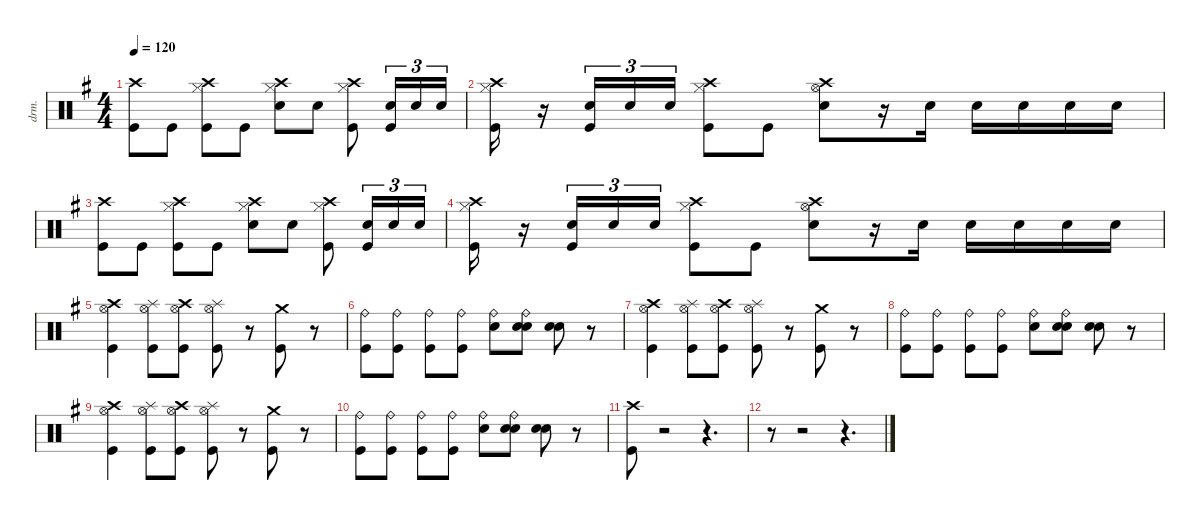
\defaultSystemsLayout 4
\hideDynamics
\bracketExtendMode nobrackets
\track ("Drums (Bill Ward)" "drm.") {instrument percussion}
\staff {score}
\articulation defaults
\ts (4 4)
\tempo 120
\clef neutral
\ks g
("Crash high (hit)"{acc forcenatural} "Kick (hit)"{acc forcenatural}).8{dy f} "Kick (hit)"{acc forcenatural}.8 ("Crash high (hit)"{acc forcenatural} "Hi-Hat (closed)"{acc forcenatural} "Kick (hit)"{acc forcenatural}).8 "Kick (hit)"{acc forcenatural}.8 ("Crash high (hit)"{acc forcenatural} "Hi-Hat (closed)"{acc forcenatural} "Snare (hit) 2"{acc forcenatural}).8 "Snare (hit) 2"{acc forcenatural}.8 ("Crash high (hit)"{acc forcenatural} "Hi-Hat (closed)"{acc forcenatural} "Kick (hit)"{acc forcenatural}).8 ("Snare (hit) 2"{acc forcenatural} "Kick (hit)"{acc forcenatural}).16{tu (3 2) dy p} "Snare (hit) 2"{acc forcenatural}.16{tu (3 2)} "Snare (hit) 2"{acc forcenatural}.16{tu (3 2)} |
("Crash high (hit)"{acc forcenatural} "Hi-Hat (closed)"{acc forcenatural} "Kick (hit)"{acc forcenatural}).16{dy f} r.16 ("Snare (hit) 2"{acc forcenatural} "Kick (hit)"{acc forcenatural}).16{tu (3 2) dy p} "Snare (hit) 2"{acc forcenatural}.16{tu (3 2)} "Snare (hit) 2"{acc forcenatural}.16{tu (3 2)} ("Crash high (hit)"{acc forcenatural} "Hi-Hat (closed)"{acc forcenatural} "Kick (hit)"{acc forcenatural}).8{dy f} "Kick (hit)"{acc forcenatural}.8 ("Crash high (hit)"{acc forcenatural} "Hi-Hat (open)"{acc forcenatural} "Snare (hit) 2"{acc forcenatural}).8 r.16 "Snare (hit) 2"{acc forcenatural}.16 "Snare (hit) 2"{acc forcenatural}.16 "Snare (hit) 2"{acc forcenatural}.16 "Snare (hit) 2"{acc forcenatural}.16 "Snare (hit) 2"{acc forcenatural}.16 |
("Crash high (hit)"{acc forcenatural} "Kick (hit)"{acc forcenatural}).8 "Kick (hit)"{acc forcenatural}.8 ("Crash high (hit)"{acc forcenatural} "Hi-Hat (closed)"{acc forcenatural} "Kick (hit)"{acc forcenatural}).8 "Kick (hit)"{acc forcenatural}.8 ("Crash high (hit)"{acc forcenatural} "Hi-Hat (closed)"{acc forcenatural} "Snare (hit) 2"{acc forcenatural}).8 "Snare (hit) 2"{acc forcenatural}.8 ("Crash high (hit)"{acc forcenatural} "Hi-Hat (closed)"{acc forcenatural} "Kick (hit)"{acc forcenatural}).8 ("Snare (hit) 2"{acc forcenatural} "Kick (hit)"{acc forcenatural}).16{tu (3 2) dy p} "Snare (hit) 2"{acc forcenatural}.16{tu (3 2)} "Snare (hit) 2"{acc forcenatural}.16{tu (3 2)} |
("Crash high (hit)"{acc forcenatural} "Hi-Hat (closed)"{acc forcenatural} "Kick (hit)"{acc forcenatural}).16{dy f} r.16 ("Snare (hit) 2"{acc forcenatural} "Kick (hit)"{acc forcenatural}).16{tu (3 2) dy p} "Snare (hit) 2"{acc forcenatural}.16{tu (3 2)} "Snare (hit) 2"{acc forcenatural}.16{tu (3 2)} ("Crash high (hit)"{acc forcenatural} "Hi-Hat (closed)"{acc forcenatural} "Kick (hit)"{acc forcenatural}).8{dy f} "Kick (hit)"{acc forcenatural}.8 ("Crash high (hit)"{acc forcenatural} "Hi-Hat (open)"{acc forcenatural} "Snare (hit) 2"{acc forcenatural}).8 r.16 "Snare (hit) 2"{acc forcenatural}.16 "Snare (hit) 2"{acc forcenatural}.16 "Snare (hit) 2"{acc forcenatural}.16 "Snare (hit) 2"{acc forcenatural}.16 "Snare (hit) 2"{acc forcenatural}.16 |
("Crash high (hit)"{acc forcenatural} "Hi-Hat (open)"{acc forcenatural} "Kick (hit)"{acc forcenatural}).4 ("Splash (hit)"{acc forcenatural} "Hi-Hat (open)"{acc forcenatural} "Kick (hit)"{acc forcenatural}).8 ("Crash high (hit)"{acc forcenatural} "Hi-Hat (open)"{acc forcenatural} "Kick (hit)"{acc forcenatural}).8 ("Splash (hit)"{acc forcenatural} "Hi-Hat (open)"{acc forcenatural} "Kick (hit)"{acc forcenatural}).8 r.8 ("Crash medium (hit)"{acc forcenatural} "Kick (hit)"{acc forcenatural}).8 r.8 |
("Ride (bell)"{acc forcenatural} "Kick (hit)"{acc forcenatural}).8 ("Ride (bell)"{acc forcenatural} "Kick (hit)"{acc forcenatural}).8 ("Ride (bell)"{acc forcenatural} "Kick (hit)"{acc forcenatural}).8 ("Ride (bell)"{acc forcenatural} "Kick (hit)"{acc forcenatural}).8 ("Ride (bell)"{acc forcenatural} "Snare (hit) 2"{acc forcenatural}).8 ("Ride (bell)"{acc forcenatural} "Snare (hit) 2"{acc forcenatural} "Snare (hit) 2"{acc forcenatural}).8 ("Snare (hit) 2"{acc forcenatural} "Snare (hit) 2"{acc forcenatural}).8{dy ff} r.8 |
("Crash high (hit)"{acc forcenatural} "Hi-Hat (open)"{acc forcenatural} "Kick (hit)"{acc forcenatural}).4{dy f} ("Splash (hit)"{acc forcenatural} "Hi-Hat (open)"{acc forcenatural} "Kick (hit)"{acc forcenatural}).8 ("Crash high (hit)"{acc forcenatural} "Hi-Hat (open)"{acc forcenatural} "Kick (hit)"{acc forcenatural}).8 ("Splash (hit)"{acc forcenatural} "Hi-Hat (open)"{acc forcenatural} "Kick (hit)"{acc forcenatural}).8 r.8 ("Crash medium (hit)"{acc forcenatural} "Kick (hit)"{acc forcenatural}).8 r.8 |
("Ride (bell)"{acc forcenatural} "Kick (hit)"{acc forcenatural}).8 ("Ride (bell)"{acc forcenatural} "Kick (hit)"{acc forcenatural}).8 ("Ride (bell)"{acc forcenatural} "Kick (hit)"{acc forcenatural}).8 ("Ride (bell)"{acc forcenatural} "Kick (hit)"{acc forcenatural}).8 ("Ride (bell)"{acc forcenatural} "Snare (hit) 2"{acc forcenatural}).8 ("Ride (bell)"{acc forcenatural} "Snare (hit) 2"{acc forcenatural} "Snare (hit) 2"{acc forcenatural}).8 ("Snare (hit) 2"{acc forcenatural} "Snare (hit) 2"{acc forcenatural}).8{dy ff} r.8 |
("Crash high (hit)"{acc forcenatural} "Hi-Hat (open)"{acc forcenatural} "Kick (hit)"{acc forcenatural}).4{dy f} ("Splash (hit)"{acc forcenatural} "Hi-Hat (open)"{acc forcenatural} "Kick (hit)"{acc forcenatural}).8 ("Crash high (hit)"{acc forcenatural} "Hi-Hat (open)"{acc forcenatural} "Kick (hit)"{acc forcenatural}).8 ("Splash (hit)"{acc forcenatural} "Hi-Hat (open)"{acc forcenatural} "Kick (hit)"{acc forcenatural}).8 r.8 ("Crash medium (hit)"{acc forcenatural} "Kick (hit)"{acc forcenatural}).8 r.8 |
("Ride (bell)"{acc forcenatural} "Kick (hit)"{acc forcenatural}).8 ("Ride (bell)"{acc forcenatural} "Kick (hit)"{acc forcenatural}).8 ("Ride (bell)"{acc forcenatural} "Kick (hit)"{acc forcenatural}).8 ("Ride (bell)"{acc forcenatural} "Kick (hit)"{acc forcenatural}).8 ("Ride (bell)"{acc forcenatural} "Snare (hit) 2"{acc forcenatural}).8 ("Ride (bell)"{acc forcenatural} "Snare (hit) 2"{acc forcenatural} "Snare (hit) 2"{acc forcenatural}).8 ("Snare (hit) 2"{acc forcenatural} "Snare (hit) 2"{acc forcenatural}).8{dy ff} r.8 |
("Crash high (hit)"{acc forcenatural} "Kick (hit)"{acc forcenatural}).8{dy f} r.2 r.4{d} |
r.8 r.2 r.4{d}
